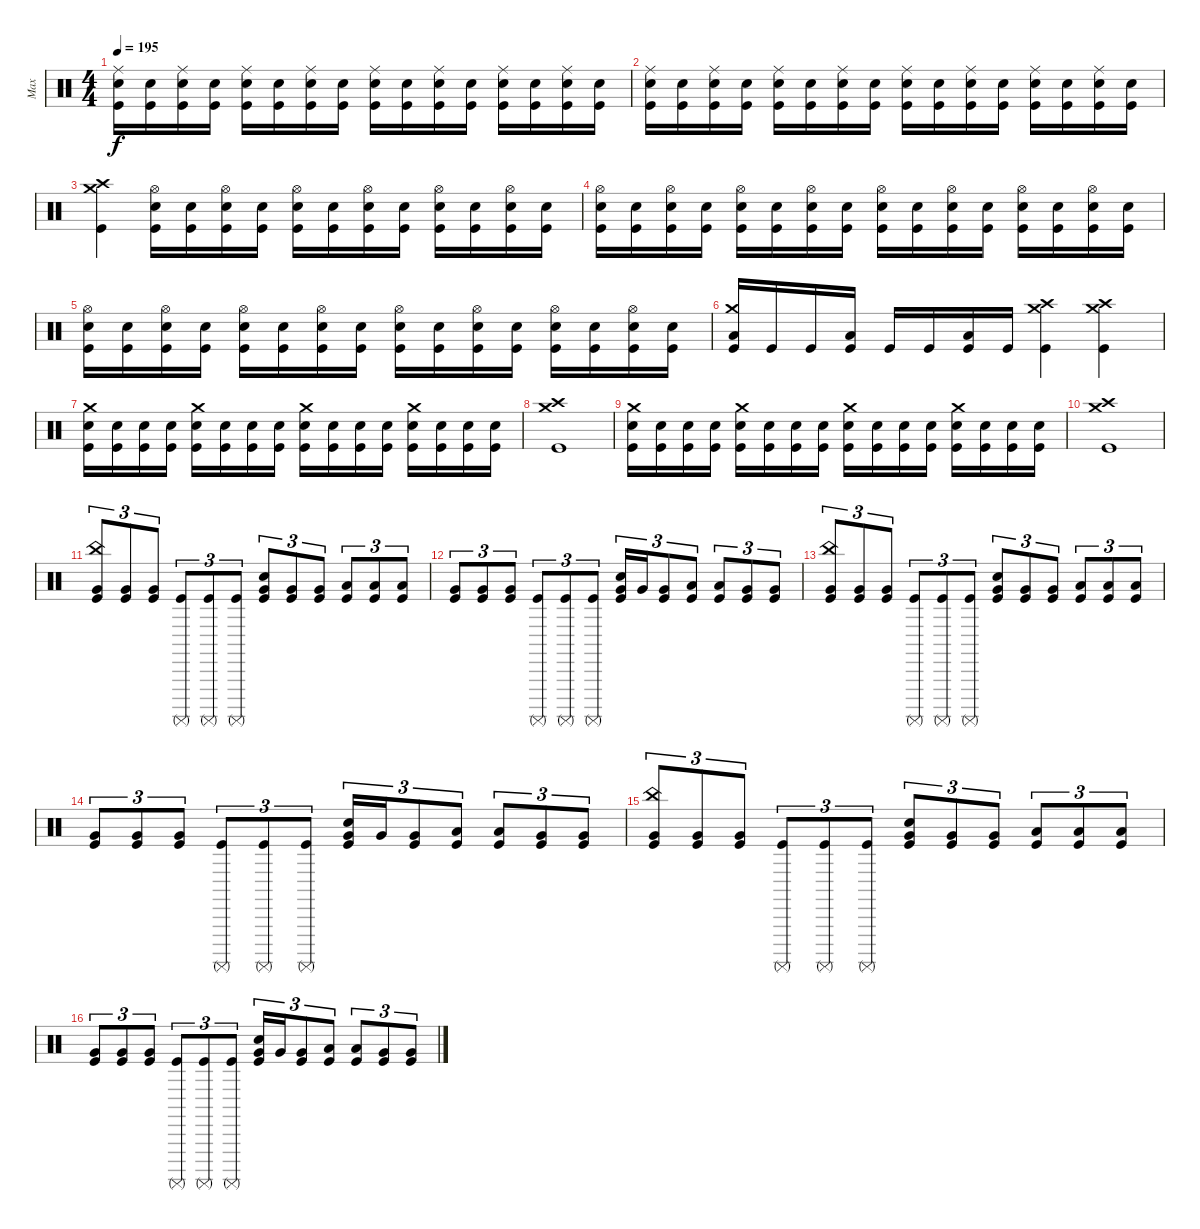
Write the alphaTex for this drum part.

\track ("Max" "Max") {instrument percussion}
\staff {score}
\articulation defaults
\ts (4 4)
\tempo 195
\clef neutral
\ks c
("Ride (middle)" "Electric Snare (hit)" "Kick (hit)").16{dy f} ("Electric Snare (hit)" "Kick (hit)").16 ("Ride (middle)" "Electric Snare (hit)" "Kick (hit)").16 ("Electric Snare (hit)" "Kick (hit)").16 ("Ride (middle)" "Electric Snare (hit)" "Kick (hit)").16 ("Electric Snare (hit)" "Kick (hit)").16 ("Ride (middle)" "Electric Snare (hit)" "Kick (hit)").16 ("Electric Snare (hit)" "Kick (hit)").16 ("Ride (middle)" "Electric Snare (hit)" "Kick (hit)").16 ("Electric Snare (hit)" "Kick (hit)").16 ("Ride (middle)" "Electric Snare (hit)" "Kick (hit)").16 ("Electric Snare (hit)" "Kick (hit)").16 ("Ride (middle)" "Electric Snare (hit)" "Kick (hit)").16 ("Electric Snare (hit)" "Kick (hit)").16 ("Ride (middle)" "Electric Snare (hit)" "Kick (hit)").16 ("Electric Snare (hit)" "Kick (hit)").16 |
("Ride (middle)" "Electric Snare (hit)" "Kick (hit)").16 ("Electric Snare (hit)" "Kick (hit)").16 ("Ride (middle)" "Electric Snare (hit)" "Kick (hit)").16 ("Electric Snare (hit)" "Kick (hit)").16 ("Ride (middle)" "Electric Snare (hit)" "Kick (hit)").16 ("Electric Snare (hit)" "Kick (hit)").16 ("Ride (middle)" "Electric Snare (hit)" "Kick (hit)").16 ("Electric Snare (hit)" "Kick (hit)").16 ("Ride (middle)" "Electric Snare (hit)" "Kick (hit)").16 ("Electric Snare (hit)" "Kick (hit)").16 ("Ride (middle)" "Electric Snare (hit)" "Kick (hit)").16 ("Electric Snare (hit)" "Kick (hit)").16 ("Ride (middle)" "Electric Snare (hit)" "Kick (hit)").16 ("Electric Snare (hit)" "Kick (hit)").16 ("Ride (middle)" "Electric Snare (hit)" "Kick (hit)").16 ("Electric Snare (hit)" "Kick (hit)").16 |
("Crash medium (hit)" "Crash high (hit)" "Kick (hit)").4 ("Hi-Hat (open)" "Electric Snare (hit)" "Kick (hit)").16 ("Electric Snare (hit)" "Kick (hit)").16 ("Hi-Hat (open)" "Electric Snare (hit)" "Kick (hit)").16 ("Electric Snare (hit)" "Kick (hit)").16 ("Hi-Hat (open)" "Electric Snare (hit)" "Kick (hit)").16 ("Electric Snare (hit)" "Kick (hit)").16 ("Hi-Hat (open)" "Electric Snare (hit)" "Kick (hit)").16 ("Electric Snare (hit)" "Kick (hit)").16 ("Hi-Hat (open)" "Electric Snare (hit)" "Kick (hit)").16 ("Electric Snare (hit)" "Kick (hit)").16 ("Hi-Hat (open)" "Electric Snare (hit)" "Kick (hit)").16 ("Electric Snare (hit)" "Kick (hit)").16 |
("Hi-Hat (open)" "Electric Snare (hit)" "Kick (hit)").16 ("Electric Snare (hit)" "Kick (hit)").16 ("Hi-Hat (open)" "Electric Snare (hit)" "Kick (hit)").16 ("Electric Snare (hit)" "Kick (hit)").16 ("Hi-Hat (open)" "Electric Snare (hit)" "Kick (hit)").16 ("Electric Snare (hit)" "Kick (hit)").16 ("Hi-Hat (open)" "Electric Snare (hit)" "Kick (hit)").16 ("Electric Snare (hit)" "Kick (hit)").16 ("Hi-Hat (open)" "Electric Snare (hit)" "Kick (hit)").16 ("Electric Snare (hit)" "Kick (hit)").16 ("Hi-Hat (open)" "Electric Snare (hit)" "Kick (hit)").16 ("Electric Snare (hit)" "Kick (hit)").16 ("Hi-Hat (open)" "Electric Snare (hit)" "Kick (hit)").16 ("Electric Snare (hit)" "Kick (hit)").16 ("Hi-Hat (open)" "Electric Snare (hit)" "Kick (hit)").16 ("Electric Snare (hit)" "Kick (hit)").16 |
("Hi-Hat (open)" "Electric Snare (hit)" "Kick (hit)").16 ("Electric Snare (hit)" "Kick (hit)").16 ("Hi-Hat (open)" "Electric Snare (hit)" "Kick (hit)").16 ("Electric Snare (hit)" "Kick (hit)").16 ("Hi-Hat (open)" "Electric Snare (hit)" "Kick (hit)").16 ("Electric Snare (hit)" "Kick (hit)").16 ("Hi-Hat (open)" "Electric Snare (hit)" "Kick (hit)").16 ("Electric Snare (hit)" "Kick (hit)").16 ("Hi-Hat (open)" "Electric Snare (hit)" "Kick (hit)").16 ("Electric Snare (hit)" "Kick (hit)").16 ("Hi-Hat (open)" "Electric Snare (hit)" "Kick (hit)").16 ("Electric Snare (hit)" "Kick (hit)").16 ("Hi-Hat (open)" "Electric Snare (hit)" "Kick (hit)").16 ("Electric Snare (hit)" "Kick (hit)").16 ("Hi-Hat (open)" "Electric Snare (hit)" "Kick (hit)").16 ("Electric Snare (hit)" "Kick (hit)").16 |
("Crash medium (hit)" "Low Tom (hit)" "Kick (hit)").16 "Kick (hit)".16 "Kick (hit)".16 ("Low Tom (hit)" "Kick (hit)").16 "Kick (hit)".16 "Kick (hit)".16 ("Low Tom (hit)" "Kick (hit)").16 "Kick (hit)".16 ("Crash medium (hit)" "Crash high (hit)" "Kick (hit)").4 ("Crash medium (hit)" "Crash high (hit)" "Kick (hit)").4 |
("Crash medium (hit)" "Electric Snare (hit)" "Kick (hit)").16 ("Electric Snare (hit)" "Kick (hit)").16 ("Electric Snare (hit)" "Kick (hit)").16 ("Electric Snare (hit)" "Kick (hit)").16 ("Crash medium (hit)" "Electric Snare (hit)" "Kick (hit)").16 ("Electric Snare (hit)" "Kick (hit)").16 ("Electric Snare (hit)" "Kick (hit)").16 ("Electric Snare (hit)" "Kick (hit)").16 ("Crash medium (hit)" "Electric Snare (hit)" "Kick (hit)").16 ("Electric Snare (hit)" "Kick (hit)").16 ("Electric Snare (hit)" "Kick (hit)").16 ("Electric Snare (hit)" "Kick (hit)").16 ("Crash medium (hit)" "Electric Snare (hit)" "Kick (hit)").16 ("Electric Snare (hit)" "Kick (hit)").16 ("Electric Snare (hit)" "Kick (hit)").16 ("Electric Snare (hit)" "Kick (hit)").16 |
("Crash medium (hit)" "Crash high (hit)" "Kick (hit)").1 |
("Crash medium (hit)" "Electric Snare (hit)" "Kick (hit)").16 ("Electric Snare (hit)" "Kick (hit)").16 ("Electric Snare (hit)" "Kick (hit)").16 ("Electric Snare (hit)" "Kick (hit)").16 ("Crash medium (hit)" "Electric Snare (hit)" "Kick (hit)").16 ("Electric Snare (hit)" "Kick (hit)").16 ("Electric Snare (hit)" "Kick (hit)").16 ("Electric Snare (hit)" "Kick (hit)").16 ("Crash medium (hit)" "Electric Snare (hit)" "Kick (hit)").16 ("Electric Snare (hit)" "Kick (hit)").16 ("Electric Snare (hit)" "Kick (hit)").16 ("Electric Snare (hit)" "Kick (hit)").16 ("Crash medium (hit)" "Electric Snare (hit)" "Kick (hit)").16 ("Electric Snare (hit)" "Kick (hit)").16 ("Electric Snare (hit)" "Kick (hit)").16 ("Electric Snare (hit)" "Kick (hit)").16 |
("Crash medium (hit)" "Crash high (hit)" "Kick (hit)").1 |
("China (hit)" "Very Low Tom (hit)" "Kick (hit)").8{tu (3 2)} ("Very Low Tom (hit)" "Kick (hit)").8{tu (3 2)} ("Very Low Tom (hit)" "Kick (hit)").8{tu (3 2)} ("Surdo (mute)" "Kick (hit)").8{tu (3 2)} ("Surdo (mute)" "Kick (hit)").8{tu (3 2)} ("Surdo (mute)" "Kick (hit)").8{tu (3 2)} ("Very Low Tom (hit)" "Electric Snare (hit)" "Kick (hit)").8{tu (3 2)} ("Very Low Tom (hit)" "Kick (hit)").8{tu (3 2)} ("Very Low Tom (hit)" "Kick (hit)").8{tu (3 2)} ("Low Tom (hit)" "Kick (hit)").8{tu (3 2)} ("Low Tom (hit)" "Kick (hit)").8{tu (3 2)} ("Low Tom (hit)" "Kick (hit)").8{tu (3 2)} |
("Very Low Tom (hit)" "Kick (hit)").8{tu (3 2)} ("Very Low Tom (hit)" "Kick (hit)").8{tu (3 2)} ("Very Low Tom (hit)" "Kick (hit)").8{tu (3 2)} ("Surdo (mute)" "Kick (hit)").8{tu (3 2)} ("Surdo (mute)" "Kick (hit)").8{tu (3 2)} ("Surdo (mute)" "Kick (hit)").8{tu (3 2)} ("Very Low Tom (hit)" "Electric Snare (hit)" "Kick (hit)").16{tu (3 2)} "Very Low Tom (hit)".16{tu (3 2)} ("Very Low Tom (hit)" "Kick (hit)").8{tu (3 2)} ("Low Tom (hit)" "Kick (hit)").8{tu (3 2)} ("Low Tom (hit)" "Kick (hit)").8{tu (3 2)} ("Very Low Tom (hit)" "Kick (hit)").8{tu (3 2)} ("Very Low Tom (hit)" "Kick (hit)").8{tu (3 2)} |
("China (hit)" "Very Low Tom (hit)" "Kick (hit)").8{tu (3 2)} ("Very Low Tom (hit)" "Kick (hit)").8{tu (3 2)} ("Very Low Tom (hit)" "Kick (hit)").8{tu (3 2)} ("Surdo (mute)" "Kick (hit)").8{tu (3 2)} ("Surdo (mute)" "Kick (hit)").8{tu (3 2)} ("Surdo (mute)" "Kick (hit)").8{tu (3 2)} ("Very Low Tom (hit)" "Electric Snare (hit)" "Kick (hit)").8{tu (3 2)} ("Very Low Tom (hit)" "Kick (hit)").8{tu (3 2)} ("Very Low Tom (hit)" "Kick (hit)").8{tu (3 2)} ("Low Tom (hit)" "Kick (hit)").8{tu (3 2)} ("Low Tom (hit)" "Kick (hit)").8{tu (3 2)} ("Low Tom (hit)" "Kick (hit)").8{tu (3 2)} |
("Very Low Tom (hit)" "Kick (hit)").8{tu (3 2)} ("Very Low Tom (hit)" "Kick (hit)").8{tu (3 2)} ("Very Low Tom (hit)" "Kick (hit)").8{tu (3 2)} ("Surdo (mute)" "Kick (hit)").8{tu (3 2)} ("Surdo (mute)" "Kick (hit)").8{tu (3 2)} ("Surdo (mute)" "Kick (hit)").8{tu (3 2)} ("Very Low Tom (hit)" "Electric Snare (hit)" "Kick (hit)").16{tu (3 2)} "Very Low Tom (hit)".16{tu (3 2)} ("Very Low Tom (hit)" "Kick (hit)").8{tu (3 2)} ("Low Tom (hit)" "Kick (hit)").8{tu (3 2)} ("Low Tom (hit)" "Kick (hit)").8{tu (3 2)} ("Very Low Tom (hit)" "Kick (hit)").8{tu (3 2)} ("Very Low Tom (hit)" "Kick (hit)").8{tu (3 2)} |
("China (hit)" "Very Low Tom (hit)" "Kick (hit)").8{tu (3 2)} ("Very Low Tom (hit)" "Kick (hit)").8{tu (3 2)} ("Very Low Tom (hit)" "Kick (hit)").8{tu (3 2)} ("Surdo (mute)" "Kick (hit)").8{tu (3 2)} ("Surdo (mute)" "Kick (hit)").8{tu (3 2)} ("Surdo (mute)" "Kick (hit)").8{tu (3 2)} ("Very Low Tom (hit)" "Electric Snare (hit)" "Kick (hit)").8{tu (3 2)} ("Very Low Tom (hit)" "Kick (hit)").8{tu (3 2)} ("Very Low Tom (hit)" "Kick (hit)").8{tu (3 2)} ("Low Tom (hit)" "Kick (hit)").8{tu (3 2)} ("Low Tom (hit)" "Kick (hit)").8{tu (3 2)} ("Low Tom (hit)" "Kick (hit)").8{tu (3 2)} |
("Very Low Tom (hit)" "Kick (hit)").8{tu (3 2)} ("Very Low Tom (hit)" "Kick (hit)").8{tu (3 2)} ("Very Low Tom (hit)" "Kick (hit)").8{tu (3 2)} ("Surdo (mute)" "Kick (hit)").8{tu (3 2)} ("Surdo (mute)" "Kick (hit)").8{tu (3 2)} ("Surdo (mute)" "Kick (hit)").8{tu (3 2)} ("Very Low Tom (hit)" "Electric Snare (hit)" "Kick (hit)").16{tu (3 2)} "Very Low Tom (hit)".16{tu (3 2)} ("Very Low Tom (hit)" "Kick (hit)").8{tu (3 2)} ("Low Tom (hit)" "Kick (hit)").8{tu (3 2)} ("Low Tom (hit)" "Kick (hit)").8{tu (3 2)} ("Very Low Tom (hit)" "Kick (hit)").8{tu (3 2)} ("Very Low Tom (hit)" "Kick (hit)").8{tu (3 2)}
